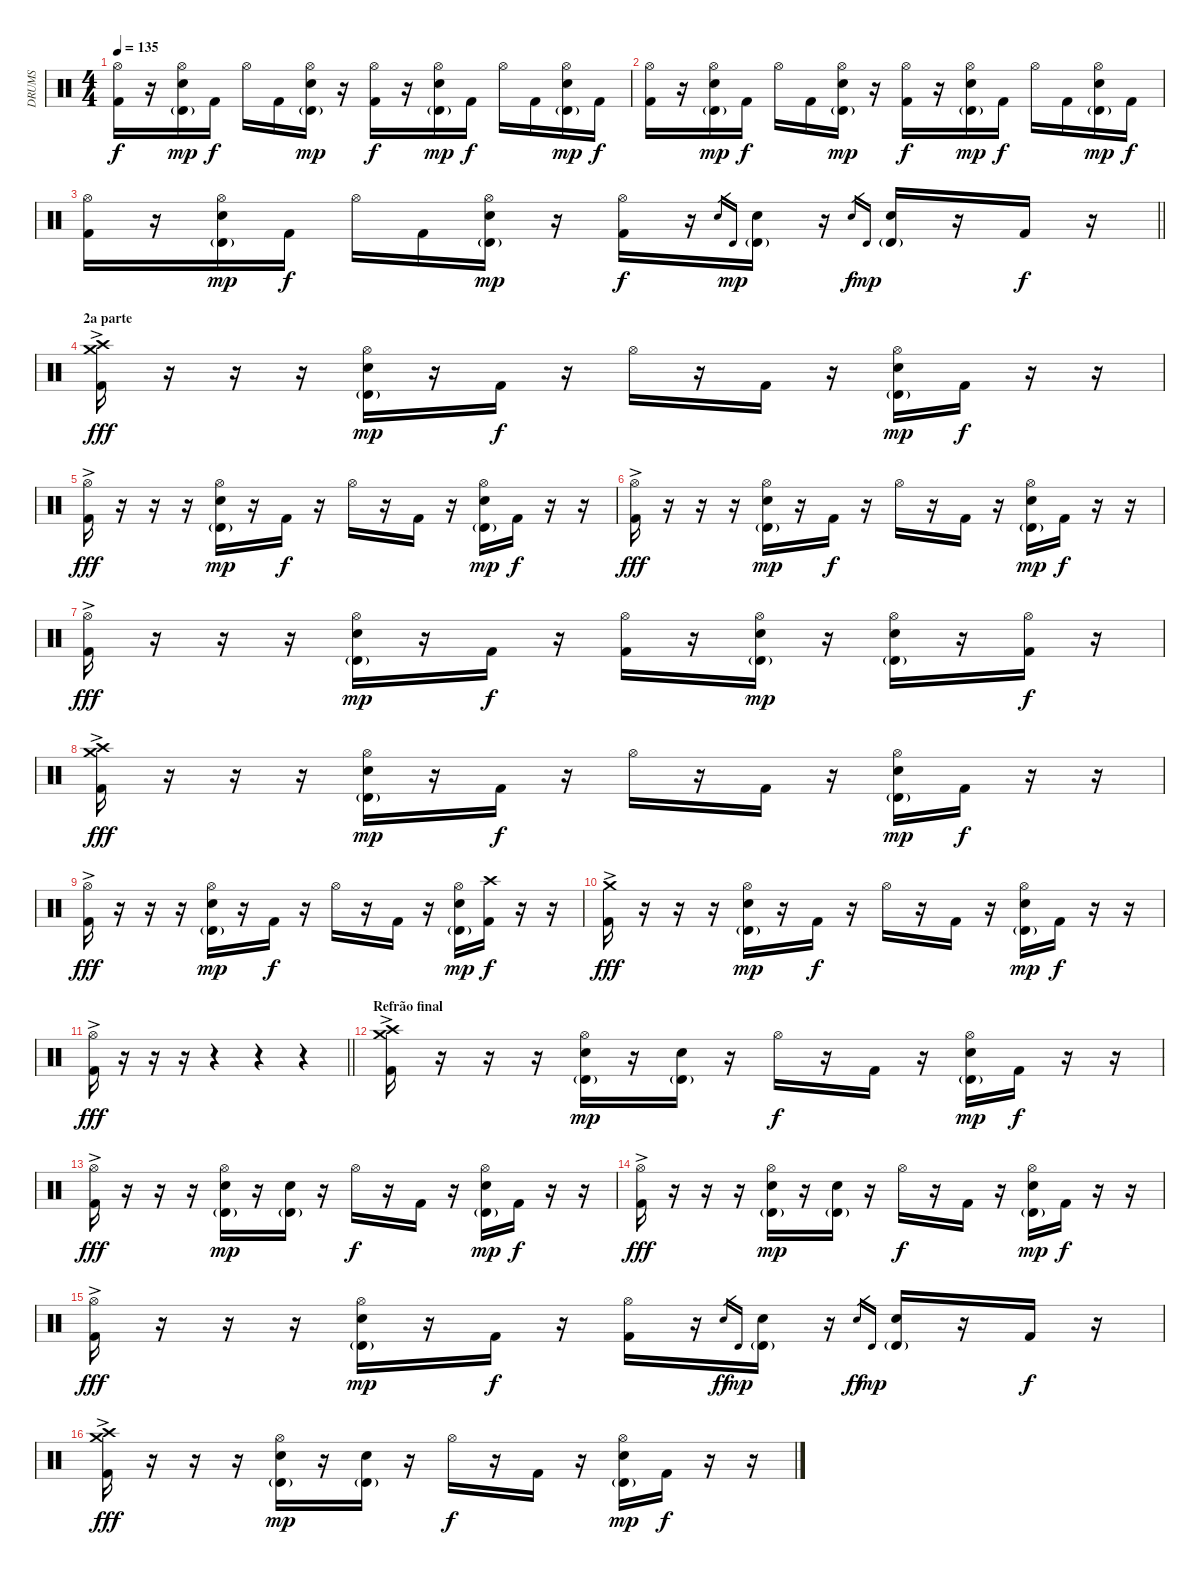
\track ("DRUMS" "DRUMS") {instrument percussion}
\staff {score}
\articulation defaults
\ts (4 4)
\tempo 135
\clef neutral
\ks c
("Hi-Hat (open)" "Kick (hit) 2").16{dy f} r.16 ("Hi-Hat (open)" "Electric Snare (hit)" "Timbale high (hit)"{g}).16{dy mp} "Kick (hit) 2".16{dy f} "Hi-Hat (open)".16 "Kick (hit) 2".16 ("Hi-Hat (open)" "Electric Snare (hit)" "Timbale high (hit)"{g}).16{dy mp} r.16 ("Hi-Hat (open)" "Kick (hit) 2").16{dy f} r.16 ("Hi-Hat (open)" "Electric Snare (hit)" "Timbale high (hit)"{g}).16{dy mp} "Kick (hit) 2".16{dy f} "Hi-Hat (open)".16 "Kick (hit) 2".16 ("Hi-Hat (open)" "Electric Snare (hit)" "Timbale high (hit)"{g}).16{dy mp} "Kick (hit) 2".16{dy f} |
("Hi-Hat (open)" "Kick (hit) 2").16 r.16 ("Hi-Hat (open)" "Electric Snare (hit)" "Timbale high (hit)"{g}).16{dy mp} "Kick (hit) 2".16{dy f} "Hi-Hat (open)".16 "Kick (hit) 2".16 ("Hi-Hat (open)" "Electric Snare (hit)" "Timbale high (hit)"{g}).16{dy mp} r.16 ("Hi-Hat (open)" "Kick (hit) 2").16{dy f} r.16 ("Hi-Hat (open)" "Electric Snare (hit)" "Timbale high (hit)"{g}).16{dy mp} "Kick (hit) 2".16{dy f} "Hi-Hat (open)".16 "Kick (hit) 2".16 ("Hi-Hat (open)" "Electric Snare (hit)" "Timbale high (hit)"{g}).16{dy mp} "Kick (hit) 2".16{dy f} |
\barLineRight lightlight
("Hi-Hat (open)" "Kick (hit) 2").16 r.16 ("Hi-Hat (open)" "Electric Snare (hit)" "Timbale high (hit)"{g}).16{dy mp} "Kick (hit) 2".16{dy f} "Hi-Hat (open)".16 "Kick (hit) 2".16 ("Hi-Hat (open)" "Electric Snare (hit)" "Timbale high (hit)"{g}).16{dy mp} r.16 ("Hi-Hat (open)" "Kick (hit) 2").16{dy f} r.16 "Electric Snare (hit)".16{gr} "Timbale high (hit)".16{gr dy mp} ("Electric Snare (hit)" "Timbale high (hit)"{g}).16 r.16 "Electric Snare (hit)".16{gr dy f} "Timbale high (hit)".16{gr dy mp} ("Electric Snare (hit)" "Timbale high (hit)"{g}).16 r.16 "Kick (hit) 2".16{dy f} r.16 |
\section ("" "2a parte")
("Crash high (hit)" "Crash medium (hit)" "Kick (hit) 2"{ac}).16{dy fff} r.16 r.16 r.16 ("Hi-Hat (open)" "Electric Snare (hit)" "Timbale high (hit)"{g}).16{dy mp} r.16 "Kick (hit) 2".16{dy f} r.16 "Hi-Hat (open)".16 r.16 "Kick (hit) 2".16 r.16 ("Hi-Hat (open)" "Electric Snare (hit)" "Timbale high (hit)"{g}).16{dy mp} "Kick (hit) 2".16{dy f} r.16 r.16 |
("Hi-Hat (open)" "Kick (hit) 2"{ac}).16{dy fff} r.16 r.16 r.16 ("Hi-Hat (open)" "Electric Snare (hit)" "Timbale high (hit)"{g}).16{dy mp} r.16 "Kick (hit) 2".16{dy f} r.16 "Hi-Hat (open)".16 r.16 "Kick (hit) 2".16 r.16 ("Hi-Hat (open)" "Electric Snare (hit)" "Timbale high (hit)"{g}).16{dy mp} "Kick (hit) 2".16{dy f} r.16 r.16 |
("Hi-Hat (open)" "Kick (hit) 2"{ac}).16{dy fff} r.16 r.16 r.16 ("Hi-Hat (open)" "Electric Snare (hit)" "Timbale high (hit)"{g}).16{dy mp} r.16 "Kick (hit) 2".16{dy f} r.16 "Hi-Hat (open)".16 r.16 "Kick (hit) 2".16 r.16 ("Hi-Hat (open)" "Electric Snare (hit)" "Timbale high (hit)"{g}).16{dy mp} "Kick (hit) 2".16{dy f} r.16 r.16 |
("Hi-Hat (open)" "Kick (hit) 2"{ac}).16{dy fff} r.16 r.16 r.16 ("Hi-Hat (open)" "Electric Snare (hit)" "Timbale high (hit)"{g}).16{dy mp} r.16 "Kick (hit) 2".16{dy f} r.16 ("Hi-Hat (open)" "Kick (hit) 2").16 r.16 ("Hi-Hat (open)" "Electric Snare (hit)" "Timbale high (hit)"{g}).16{dy mp} r.16 ("Hi-Hat (open)" "Electric Snare (hit)" "Timbale high (hit)"{g}).16 r.16 ("Hi-Hat (open)" "Kick (hit) 2").16{dy f} r.16 |
("Crash high (hit)" "Crash medium (hit)" "Kick (hit) 2"{ac}).16{dy fff} r.16 r.16 r.16 ("Hi-Hat (open)" "Electric Snare (hit)" "Timbale high (hit)"{g}).16{dy mp} r.16 "Kick (hit) 2".16{dy f} r.16 "Hi-Hat (open)".16 r.16 "Kick (hit) 2".16 r.16 ("Hi-Hat (open)" "Electric Snare (hit)" "Timbale high (hit)"{g}).16{dy mp} "Kick (hit) 2".16{dy f} r.16 r.16 |
("Hi-Hat (open)" "Kick (hit) 2"{ac}).16{dy fff} r.16 r.16 r.16 ("Hi-Hat (open)" "Electric Snare (hit)" "Timbale high (hit)"{g}).16{dy mp} r.16 "Kick (hit) 2".16{dy f} r.16 "Hi-Hat (open)".16 r.16 "Kick (hit) 2".16 r.16 ("Hi-Hat (open)" "Electric Snare (hit)" "Timbale high (hit)"{g}).16{dy mp} ("Crash high (hit)" "Kick (hit) 2").16{dy f} r.16 r.16 |
("Crash medium (hit)" "Kick (hit) 2"{ac}).16{dy fff} r.16 r.16 r.16 ("Hi-Hat (open)" "Electric Snare (hit)" "Timbale high (hit)"{g}).16{dy mp} r.16 "Kick (hit) 2".16{dy f} r.16 "Hi-Hat (open)".16 r.16 "Kick (hit) 2".16 r.16 ("Hi-Hat (open)" "Electric Snare (hit)" "Timbale high (hit)"{g}).16{dy mp} "Kick (hit) 2".16{dy f} r.16 r.16 |
\barLineRight lightlight
("Hi-Hat (open)" "Kick (hit) 2"{ac}).16{dy fff} r.16 r.16 r.16 r.4 r.4 r.4 |
\section ("" "Refrão final")
("Crash high (hit)" "Crash medium (hit)" "Kick (hit) 2"{ac}).16 r.16 r.16 r.16 ("Hi-Hat (open)" "Electric Snare (hit)" "Timbale high (hit)"{g}).16{dy mp} r.16 ("Electric Snare (hit)" "Timbale high (hit)"{g}).16 r.16 "Hi-Hat (open)".16{dy f} r.16 "Kick (hit) 2".16 r.16 ("Hi-Hat (open)" "Electric Snare (hit)" "Timbale high (hit)"{g}).16{dy mp} "Kick (hit) 2".16{dy f} r.16 r.16 |
("Hi-Hat (open)" "Kick (hit) 2"{ac}).16{dy fff} r.16 r.16 r.16 ("Hi-Hat (open)" "Electric Snare (hit)" "Timbale high (hit)"{g}).16{dy mp} r.16 ("Electric Snare (hit)" "Timbale high (hit)"{g}).16 r.16 "Hi-Hat (open)".16{dy f} r.16 "Kick (hit) 2".16 r.16 ("Hi-Hat (open)" "Electric Snare (hit)" "Timbale high (hit)"{g}).16{dy mp} "Kick (hit) 2".16{dy f} r.16 r.16 |
("Hi-Hat (open)" "Kick (hit) 2"{ac}).16{dy fff} r.16 r.16 r.16 ("Hi-Hat (open)" "Electric Snare (hit)" "Timbale high (hit)"{g}).16{dy mp} r.16 ("Electric Snare (hit)" "Timbale high (hit)"{g}).16 r.16 "Hi-Hat (open)".16{dy f} r.16 "Kick (hit) 2".16 r.16 ("Hi-Hat (open)" "Electric Snare (hit)" "Timbale high (hit)"{g}).16{dy mp} "Kick (hit) 2".16{dy f} r.16 r.16 |
("Hi-Hat (open)" "Kick (hit) 2"{ac}).16{dy fff} r.16 r.16 r.16 ("Hi-Hat (open)" "Electric Snare (hit)" "Timbale high (hit)"{g}).16{dy mp} r.16 "Kick (hit) 2".16{dy f} r.16 ("Hi-Hat (open)" "Kick (hit) 2").16 r.16 "Electric Snare (hit)".16{gr dy ff} "Timbale high (hit)".16{gr dy mp} ("Electric Snare (hit)" "Timbale high (hit)"{g}).16 r.16 "Electric Snare (hit)".16{gr dy ff} "Timbale high (hit)".16{gr dy mp} ("Electric Snare (hit)" "Timbale high (hit)"{g}).16 r.16 "Kick (hit) 2".16{dy f} r.16 |
("Crash high (hit)" "Crash medium (hit)" "Kick (hit) 2"{ac}).16{dy fff} r.16 r.16 r.16 ("Hi-Hat (open)" "Electric Snare (hit)" "Timbale high (hit)"{g}).16{dy mp} r.16 ("Electric Snare (hit)" "Timbale high (hit)"{g}).16 r.16 "Hi-Hat (open)".16{dy f} r.16 "Kick (hit) 2".16 r.16 ("Hi-Hat (open)" "Electric Snare (hit)" "Timbale high (hit)"{g}).16{dy mp} "Kick (hit) 2".16{dy f} r.16 r.16
